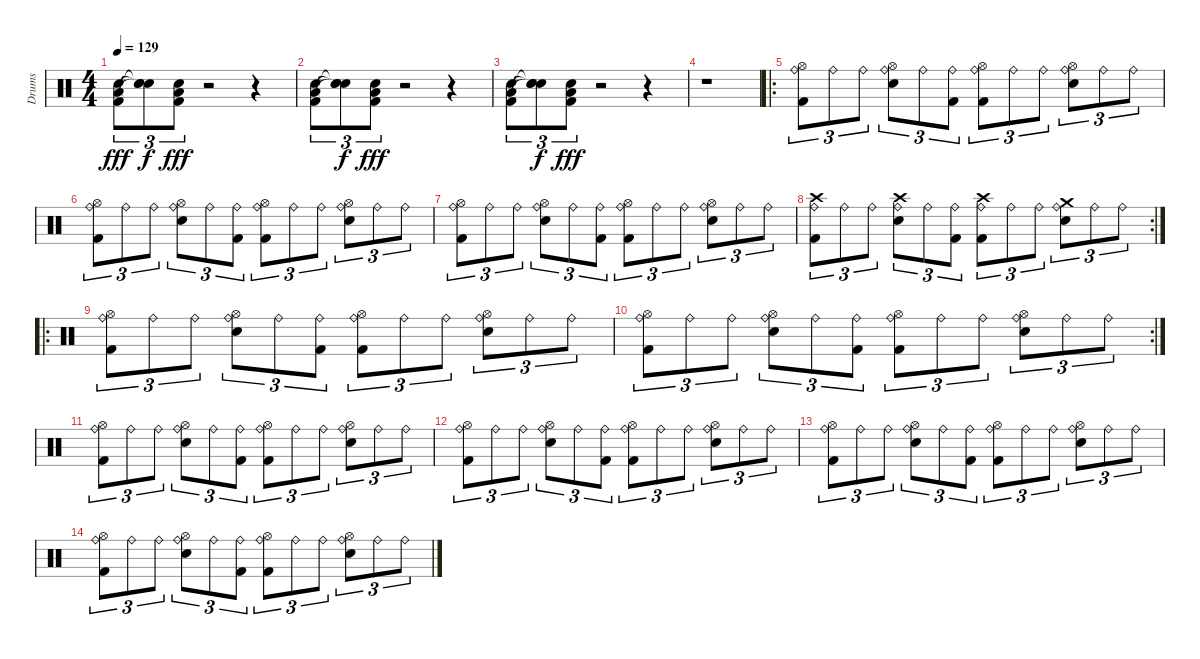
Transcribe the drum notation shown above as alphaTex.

\track ("Drums" "Drums") {instrument percussion}
\staff {score}
\articulation defaults
\ts (4 4)
\tempo 129
\clef neutral
\ks c
("Low Floor Tom (hit)" "Kick (hit) 2" "Snare (hit) 2").8{tu (3 2) dy fff} ("Snare (hit)"{t} "Snare (hit)"{t} "Snare (hit)"{t}).8{tu (3 2) dy f} ("Low Floor Tom (hit)" "Kick (hit) 2" "Snare (hit) 2").8{tu (3 2) dy fff} r.2 r.4 |
("Low Floor Tom (hit)" "Kick (hit) 2" "Snare (hit) 2").8{tu (3 2)} ("Snare (hit)"{t} "Snare (hit)"{t} "Snare (hit)"{t}).8{tu (3 2) dy f} ("Low Floor Tom (hit)" "Kick (hit) 2" "Snare (hit) 2").8{tu (3 2) dy fff} r.2 r.4 |
("Low Floor Tom (hit)" "Kick (hit) 2" "Snare (hit) 2").8{tu (3 2)} ("Snare (hit)"{t} "Snare (hit)"{t} "Snare (hit)"{t}).8{tu (3 2) dy f} ("Low Floor Tom (hit)" "Kick (hit) 2" "Snare (hit) 2").8{tu (3 2) dy fff} r.2 r.4 |
r.1 |
\ro
("Ride (bell)" "Kick (hit) 2" "Hi-Hat (open)").8{tu (3 2)} "Ride (bell)".8{tu (3 2)} "Ride (bell)".8{tu (3 2)} ("Ride (bell)" "Snare (hit) 2" "Hi-Hat (open)").8{tu (3 2)} "Ride (bell)".8{tu (3 2)} ("Ride (bell)" "Kick (hit) 2").8{tu (3 2)} ("Ride (bell)" "Kick (hit) 2" "Hi-Hat (open)").8{tu (3 2)} "Ride (bell)".8{tu (3 2)} "Ride (bell)".8{tu (3 2)} ("Ride (bell)" "Snare (hit) 2" "Hi-Hat (open)").8{tu (3 2)} "Ride (bell)".8{tu (3 2)} "Ride (bell)".8{tu (3 2)} |
("Ride (bell)" "Kick (hit) 2" "Hi-Hat (open)").8{tu (3 2)} "Ride (bell)".8{tu (3 2)} "Ride (bell)".8{tu (3 2)} ("Ride (bell)" "Snare (hit) 2" "Hi-Hat (open)").8{tu (3 2)} "Ride (bell)".8{tu (3 2)} ("Ride (bell)" "Kick (hit) 2").8{tu (3 2)} ("Ride (bell)" "Kick (hit) 2" "Hi-Hat (open)").8{tu (3 2)} "Ride (bell)".8{tu (3 2)} "Ride (bell)".8{tu (3 2)} ("Ride (bell)" "Snare (hit) 2" "Hi-Hat (open)").8{tu (3 2)} "Ride (bell)".8{tu (3 2)} "Ride (bell)".8{tu (3 2)} |
("Ride (bell)" "Kick (hit) 2" "Hi-Hat (open)").8{tu (3 2)} "Ride (bell)".8{tu (3 2)} "Ride (bell)".8{tu (3 2)} ("Ride (bell)" "Snare (hit) 2" "Hi-Hat (open)").8{tu (3 2)} "Ride (bell)".8{tu (3 2)} ("Ride (bell)" "Kick (hit) 2").8{tu (3 2)} ("Ride (bell)" "Kick (hit) 2" "Hi-Hat (open)").8{tu (3 2)} "Ride (bell)".8{tu (3 2)} "Ride (bell)".8{tu (3 2)} ("Ride (bell)" "Snare (hit) 2" "Hi-Hat (open)").8{tu (3 2)} "Ride (bell)".8{tu (3 2)} "Ride (bell)".8{tu (3 2)} |
\rc 2
("Ride (bell)" "Kick (hit) 2" "Crash high (hit)").8{tu (3 2)} "Ride (bell)".8{tu (3 2)} "Ride (bell)".8{tu (3 2)} ("Ride (bell)" "Snare (hit) 2" "Crash high (hit)").8{tu (3 2)} "Ride (bell)".8{tu (3 2)} ("Ride (bell)" "Kick (hit) 2").8{tu (3 2)} ("Ride (bell)" "Kick (hit) 2" "Crash high (hit)").8{tu (3 2)} "Ride (bell)".8{tu (3 2)} "Ride (bell)".8{tu (3 2)} ("Ride (bell)" "Snare (hit) 2" "Crash medium (hit)").8{tu (3 2)} "Ride (bell)".8{tu (3 2)} "Ride (bell)".8{tu (3 2)} |
\ro
("Ride (bell)" "Kick (hit) 2" "Hi-Hat (open)").8{tu (3 2)} "Ride (bell)".8{tu (3 2)} "Ride (bell)".8{tu (3 2)} ("Ride (bell)" "Snare (hit) 2" "Hi-Hat (open)").8{tu (3 2)} "Ride (bell)".8{tu (3 2)} ("Ride (bell)" "Kick (hit) 2").8{tu (3 2)} ("Ride (bell)" "Kick (hit) 2" "Hi-Hat (open)").8{tu (3 2)} "Ride (bell)".8{tu (3 2)} "Ride (bell)".8{tu (3 2)} ("Ride (bell)" "Snare (hit) 2" "Hi-Hat (open)").8{tu (3 2)} "Ride (bell)".8{tu (3 2)} "Ride (bell)".8{tu (3 2)} |
\rc 2
("Ride (bell)" "Kick (hit) 2" "Hi-Hat (open)").8{tu (3 2)} "Ride (bell)".8{tu (3 2)} "Ride (bell)".8{tu (3 2)} ("Ride (bell)" "Snare (hit) 2" "Hi-Hat (open)").8{tu (3 2)} "Ride (bell)".8{tu (3 2)} ("Ride (bell)" "Kick (hit) 2").8{tu (3 2)} ("Ride (bell)" "Kick (hit) 2" "Hi-Hat (open)").8{tu (3 2)} "Ride (bell)".8{tu (3 2)} "Ride (bell)".8{tu (3 2)} ("Ride (bell)" "Snare (hit) 2" "Hi-Hat (open)").8{tu (3 2)} "Ride (bell)".8{tu (3 2)} "Ride (bell)".8{tu (3 2)} |
("Ride (bell)" "Kick (hit) 2" "Hi-Hat (open)").8{tu (3 2)} "Ride (bell)".8{tu (3 2)} "Ride (bell)".8{tu (3 2)} ("Ride (bell)" "Snare (hit) 2" "Hi-Hat (open)").8{tu (3 2)} "Ride (bell)".8{tu (3 2)} ("Ride (bell)" "Kick (hit) 2").8{tu (3 2)} ("Ride (bell)" "Kick (hit) 2" "Hi-Hat (open)").8{tu (3 2)} "Ride (bell)".8{tu (3 2)} "Ride (bell)".8{tu (3 2)} ("Ride (bell)" "Snare (hit) 2" "Hi-Hat (open)").8{tu (3 2)} "Ride (bell)".8{tu (3 2)} "Ride (bell)".8{tu (3 2)} |
("Ride (bell)" "Kick (hit) 2" "Hi-Hat (open)").8{tu (3 2)} "Ride (bell)".8{tu (3 2)} "Ride (bell)".8{tu (3 2)} ("Ride (bell)" "Snare (hit) 2" "Hi-Hat (open)").8{tu (3 2)} "Ride (bell)".8{tu (3 2)} ("Ride (bell)" "Kick (hit) 2").8{tu (3 2)} ("Ride (bell)" "Kick (hit) 2" "Hi-Hat (open)").8{tu (3 2)} "Ride (bell)".8{tu (3 2)} "Ride (bell)".8{tu (3 2)} ("Ride (bell)" "Snare (hit) 2" "Hi-Hat (open)").8{tu (3 2)} "Ride (bell)".8{tu (3 2)} "Ride (bell)".8{tu (3 2)} |
("Ride (bell)" "Kick (hit) 2" "Hi-Hat (open)").8{tu (3 2)} "Ride (bell)".8{tu (3 2)} "Ride (bell)".8{tu (3 2)} ("Ride (bell)" "Snare (hit) 2" "Hi-Hat (open)").8{tu (3 2)} "Ride (bell)".8{tu (3 2)} ("Ride (bell)" "Kick (hit) 2").8{tu (3 2)} ("Ride (bell)" "Kick (hit) 2" "Hi-Hat (open)").8{tu (3 2)} "Ride (bell)".8{tu (3 2)} "Ride (bell)".8{tu (3 2)} ("Ride (bell)" "Snare (hit) 2" "Hi-Hat (open)").8{tu (3 2)} "Ride (bell)".8{tu (3 2)} "Ride (bell)".8{tu (3 2)} |
("Ride (bell)" "Kick (hit) 2" "Hi-Hat (open)").8{tu (3 2)} "Ride (bell)".8{tu (3 2)} "Ride (bell)".8{tu (3 2)} ("Ride (bell)" "Snare (hit) 2" "Hi-Hat (open)").8{tu (3 2)} "Ride (bell)".8{tu (3 2)} ("Ride (bell)" "Kick (hit) 2").8{tu (3 2)} ("Ride (bell)" "Kick (hit) 2" "Hi-Hat (open)").8{tu (3 2)} "Ride (bell)".8{tu (3 2)} "Ride (bell)".8{tu (3 2)} ("Ride (bell)" "Snare (hit) 2" "Hi-Hat (open)").8{tu (3 2)} "Ride (bell)".8{tu (3 2)} "Ride (bell)".8{tu (3 2)}
